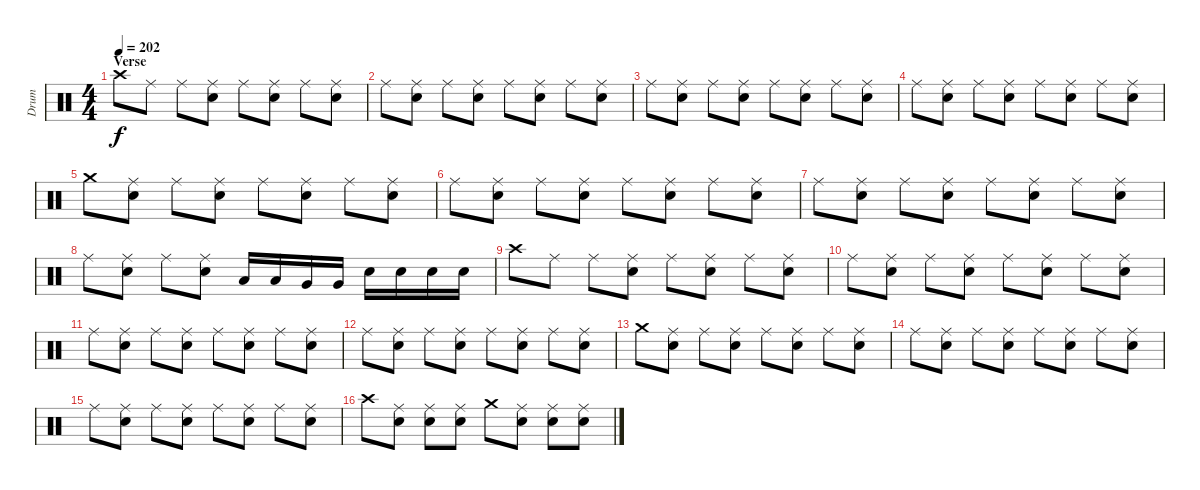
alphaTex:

\track ("Drum" "Drum") {instrument percussion}
\staff {score}
\articulation defaults
\ts (4 4)
\section ("" "Verse")
\tempo 202
\clef neutral
\ks c "Crash high (hit)".8{dy f} "Ride (middle)".8 "Ride (middle)".8
("Ride (middle)" "Electric Snare (hit)").8 "Ride (middle)".8 ("Ride (middle)" "Electric Snare (hit)").8 "Ride (middle)".8 ("Ride (middle)" "Electric Snare (hit)").8 |
"Ride (middle)".8 ("Ride (middle)" "Electric Snare (hit)").8 "Ride (middle)".8 ("Ride (middle)" "Electric Snare (hit)").8 "Ride (middle)".8 ("Ride (middle)" "Electric Snare (hit)").8 "Ride (middle)".8 ("Ride (middle)" "Electric Snare (hit)").8 |
"Ride (middle)".8 ("Ride (middle)" "Electric Snare (hit)").8 "Ride (middle)".8 ("Ride (middle)" "Electric Snare (hit)").8 "Ride (middle)".8 ("Ride (middle)" "Electric Snare (hit)").8 "Ride (middle)".8 ("Ride (middle)" "Electric Snare (hit)").8 |
"Ride (middle)".8 ("Ride (middle)" "Electric Snare (hit)").8 "Ride (middle)".8 ("Ride (middle)" "Electric Snare (hit)").8 "Ride (middle)".8 ("Ride (middle)" "Electric Snare (hit)").8 "Ride (middle)".8 ("Ride (middle)" "Electric Snare (hit)").8 |
"Crash medium (hit)".8 ("Ride (middle)" "Electric Snare (hit)").8 "Ride (middle)".8 ("Ride (middle)" "Electric Snare (hit)").8 "Ride (middle)".8 ("Ride (middle)" "Electric Snare (hit)").8 "Ride (middle)".8 ("Ride (middle)" "Electric Snare (hit)").8 |
"Ride (middle)".8 ("Ride (middle)" "Electric Snare (hit)").8 "Ride (middle)".8 ("Ride (middle)" "Electric Snare (hit)").8 "Ride (middle)".8 ("Ride (middle)" "Electric Snare (hit)").8 "Ride (middle)".8 ("Ride (middle)" "Electric Snare (hit)").8 |
"Ride (middle)".8 ("Ride (middle)" "Electric Snare (hit)").8 "Ride (middle)".8 ("Ride (middle)" "Electric Snare (hit)").8 "Ride (middle)".8 ("Ride (middle)" "Electric Snare (hit)").8 "Ride (middle)".8 ("Ride (middle)" "Electric Snare (hit)").8 |
"Ride (middle)".8 ("Ride (middle)" "Electric Snare (hit)").8 "Ride (middle)".8 ("Ride (middle)" "Electric Snare (hit)").8 "Low Tom (hit)".16 "Low Tom (hit)".16 "Very Low Tom (hit)".16 "Very Low Tom (hit)".16 "Electric Snare (hit)".16 "Electric Snare (hit)".16 "Electric Snare (hit)".16 "Electric Snare (hit)".16 |
"Crash high (hit)".8 "Ride (middle)".8 "Ride (middle)".8 ("Ride (middle)" "Electric Snare (hit)").8 "Ride (middle)".8 ("Ride (middle)" "Electric Snare (hit)").8 "Ride (middle)".8 ("Ride (middle)" "Electric Snare (hit)").8 |
"Ride (middle)".8 ("Ride (middle)" "Electric Snare (hit)").8 "Ride (middle)".8 ("Ride (middle)" "Electric Snare (hit)").8 "Ride (middle)".8 ("Ride (middle)" "Electric Snare (hit)").8 "Ride (middle)".8 ("Ride (middle)" "Electric Snare (hit)").8 |
"Ride (middle)".8 ("Ride (middle)" "Electric Snare (hit)").8 "Ride (middle)".8 ("Ride (middle)" "Electric Snare (hit)").8 "Ride (middle)".8 ("Ride (middle)" "Electric Snare (hit)").8 "Ride (middle)".8 ("Ride (middle)" "Electric Snare (hit)").8 |
"Ride (middle)".8 ("Ride (middle)" "Electric Snare (hit)").8 "Ride (middle)".8 ("Ride (middle)" "Electric Snare (hit)").8 "Ride (middle)".8 ("Ride (middle)" "Electric Snare (hit)").8 "Ride (middle)".8 ("Ride (middle)" "Electric Snare (hit)").8 |
"Crash medium (hit)".8 ("Ride (middle)" "Electric Snare (hit)").8 "Ride (middle)".8 ("Ride (middle)" "Electric Snare (hit)").8 "Ride (middle)".8 ("Ride (middle)" "Electric Snare (hit)").8 "Ride (middle)".8 ("Ride (middle)" "Electric Snare (hit)").8 |
"Ride (middle)".8 ("Ride (middle)" "Electric Snare (hit)").8 "Ride (middle)".8 ("Ride (middle)" "Electric Snare (hit)").8 "Ride (middle)".8 ("Ride (middle)" "Electric Snare (hit)").8 "Ride (middle)".8 ("Ride (middle)" "Electric Snare (hit)").8 |
"Ride (middle)".8 ("Ride (middle)" "Electric Snare (hit)").8 "Ride (middle)".8 ("Ride (middle)" "Electric Snare (hit)").8 "Ride (middle)".8 ("Ride (middle)" "Electric Snare (hit)").8 "Ride (middle)".8 ("Ride (middle)" "Electric Snare (hit)").8 |
"Crash high (hit)".8 ("Ride (middle)" "Electric Snare (hit)").8 ("Ride (middle)" "Electric Snare (hit)").8 ("Ride (middle)" "Electric Snare (hit)").8 "Crash medium (hit)".8 ("Ride (middle)" "Electric Snare (hit)").8 ("Ride (middle)" "Electric Snare (hit)").8 ("Ride (middle)" "Electric Snare (hit)").8
